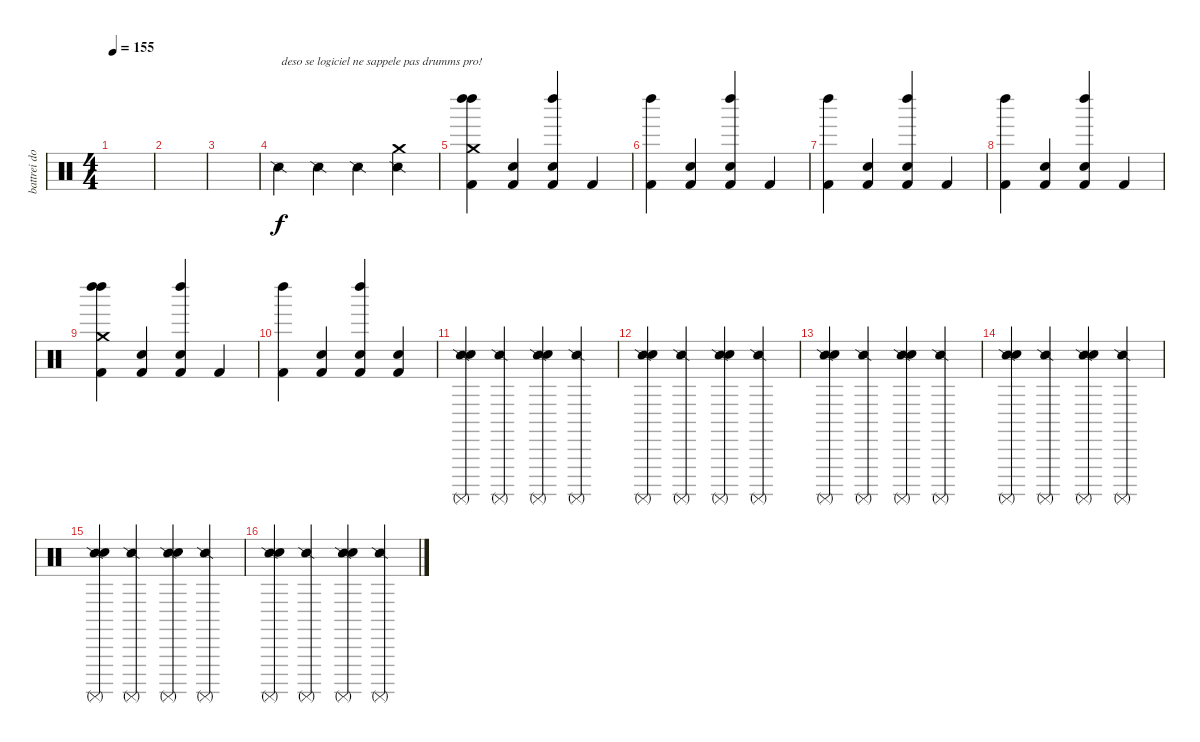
\track ("battrei dom" "battrei do") {instrument percussion}
\staff {score}
\articulation defaults
\ts (4 4)
\tempo 155
\clef neutral
\ks c
|
|
|
"Snare (side stick) 2".4{txt "deso se logiciel ne sappele pas drumms pro!"} "Snare (side stick) 2".4 "Snare (side stick) 2".4 ("Snare (side stick) 2" "Crash medium (hit)").4 |
("Kick (hit) 2" "Crash medium (hit)" "Left Maraca (hit)" "Left Maraca (hit)").4 ("Kick (hit) 2" "Snare (hit) 2").4 ("Kick (hit) 2" "Snare (hit) 2" "Left Maraca (hit)").4 "Kick (hit) 2".4 |
("Kick (hit) 2" "Left Maraca (hit)").4 ("Kick (hit) 2" "Snare (hit) 2").4 ("Kick (hit) 2" "Snare (hit) 2" "Left Maraca (hit)").4 "Kick (hit) 2".4 |
("Kick (hit) 2" "Left Maraca (hit)").4 ("Kick (hit) 2" "Snare (hit) 2").4 ("Kick (hit) 2" "Snare (hit) 2" "Left Maraca (hit)").4 "Kick (hit) 2".4 |
("Kick (hit) 2" "Left Maraca (hit)").4 ("Kick (hit) 2" "Snare (hit) 2").4 ("Kick (hit) 2" "Snare (hit) 2" "Left Maraca (hit)").4 "Kick (hit) 2".4 |
("Kick (hit) 2" "Crash medium (hit)" "Left Maraca (hit)" "Left Maraca (hit)").4 ("Kick (hit) 2" "Snare (hit) 2").4 ("Kick (hit) 2" "Snare (hit) 2" "Left Maraca (hit)").4 "Kick (hit) 2".4 |
("Kick (hit) 2" "Left Maraca (hit)").4 ("Kick (hit) 2" "Snare (hit) 2").4 ("Kick (hit) 2" "Snare (hit) 2" "Left Maraca (hit)").4 ("Kick (hit) 2" "Snare (hit) 2").4 |
("Snare (side stick) 2" "Snare (hit) 2" "Surdo (mute)").4 ("Snare (side stick) 2" "Surdo (mute)").4 ("Snare (side stick) 2" "Snare (hit) 2" "Surdo (mute)").4 ("Snare (side stick) 2" "Surdo (mute)").4 |
("Snare (side stick) 2" "Snare (hit) 2" "Surdo (mute)").4 ("Snare (side stick) 2" "Surdo (mute)").4 ("Snare (side stick) 2" "Snare (hit) 2" "Surdo (mute)").4 ("Snare (side stick) 2" "Surdo (mute)").4 |
("Snare (side stick) 2" "Snare (hit) 2" "Surdo (mute)").4 ("Snare (side stick) 2" "Surdo (mute)").4 ("Snare (side stick) 2" "Snare (hit) 2" "Surdo (mute)").4 ("Snare (side stick) 2" "Surdo (mute)").4 |
("Snare (side stick) 2" "Snare (hit) 2" "Surdo (mute)").4 ("Snare (side stick) 2" "Surdo (mute)").4 ("Snare (side stick) 2" "Snare (hit) 2" "Surdo (mute)").4 ("Snare (side stick) 2" "Surdo (mute)").4 |
("Snare (side stick) 2" "Snare (hit) 2" "Surdo (mute)").4 ("Snare (side stick) 2" "Surdo (mute)").4 ("Snare (side stick) 2" "Snare (hit) 2" "Surdo (mute)").4 ("Snare (side stick) 2" "Surdo (mute)").4 |
("Snare (side stick) 2" "Snare (hit) 2" "Surdo (mute)").4 ("Snare (side stick) 2" "Surdo (mute)").4 ("Snare (side stick) 2" "Snare (hit) 2" "Surdo (mute)").4 ("Snare (side stick) 2" "Surdo (mute)").4
